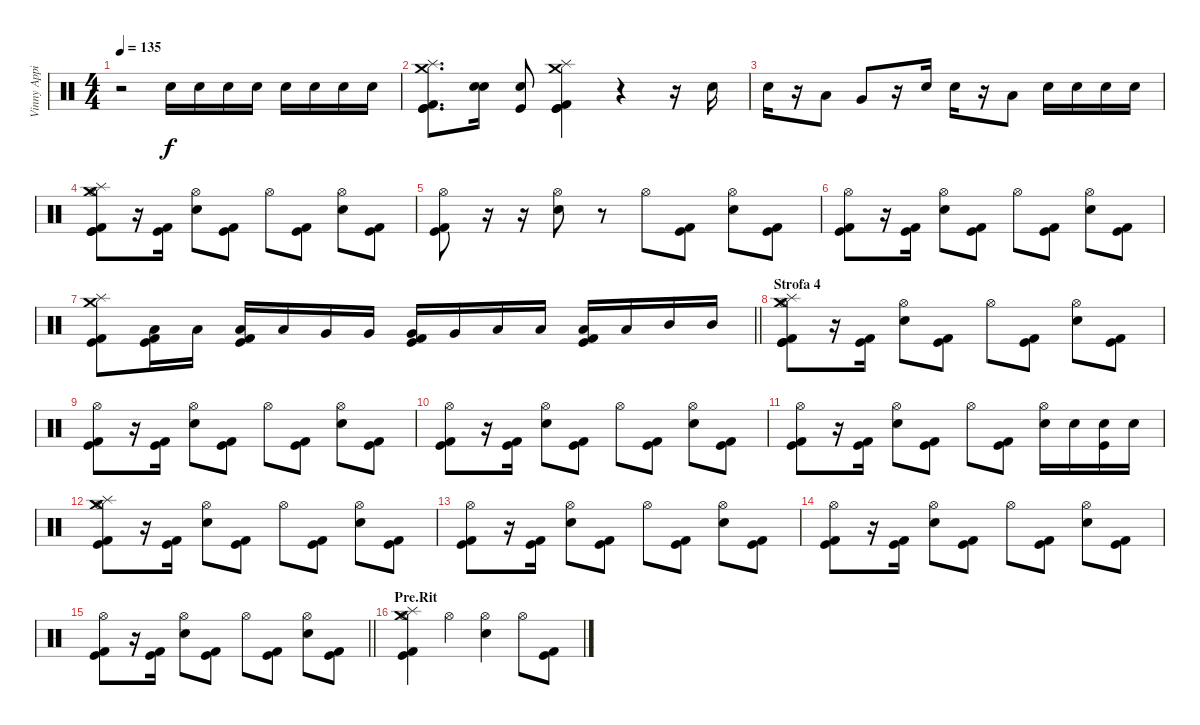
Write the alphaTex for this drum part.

\track ("Vinny Appice" "Vinny Appi") {instrument percussion}
\staff {score}
\articulation defaults
\ts (4 4)
\tempo 135
\clef neutral
\ks c
r.2{dy f} "Snare (hit) 2".16 "Snare (hit) 2".16 "Snare (hit) 2".16 "Snare (hit) 2".16 "Snare (hit) 2".16 "Snare (hit) 2".16 "Snare (hit) 2".16 "Snare (hit) 2".16 |
("Crash medium (hit)" "Splash (hit)" "Kick (hit)" "Kick (hit) 2" "Kick (hit)").8{d} ("Snare (hit) 2" "Electric Snare (hit)").16 ("Kick (hit)" "Electric Snare (hit)").8 ("Crash medium (hit)" "Splash (hit)" "Kick (hit)" "Kick (hit) 2" "Kick (hit)").4 r.4 r.16 "Snare (hit) 2".16 |
"Snare (hit) 2".16 r.16 "Low Tom (hit)".8 "Very Low Tom (hit)".8 r.16 "Snare (hit) 2".16 "Snare (hit) 2".16 r.16 "Low Tom (hit)".8 "Snare (hit) 2".16 "Snare (hit) 2".16 "Snare (hit) 2".16 "Snare (hit) 2".16 |
("Hi-Hat (open)" "Kick (hit)" "Kick (hit) 2" "Splash (hit)" "Crash medium (hit)" "Kick (hit)").8 r.16 ("Kick (hit)" "Kick (hit) 2").16 ("Hi-Hat (open)" "Snare (hit) 2").8 ("Kick (hit)" "Kick (hit) 2").8 "Hi-Hat (open)".8 ("Kick (hit)" "Kick (hit) 2").8 ("Hi-Hat (open)" "Snare (hit) 2").8 ("Kick (hit) 2" "Kick (hit)").8 |
("Hi-Hat (open)" "Kick (hit)" "Kick (hit) 2").8 r.16 r.16 ("Hi-Hat (open)" "Snare (hit) 2").8 r.8 "Hi-Hat (open)".8 ("Kick (hit)" "Kick (hit) 2").8 ("Hi-Hat (open)" "Snare (hit) 2").8 ("Kick (hit) 2" "Kick (hit)").8 |
("Hi-Hat (open)" "Kick (hit)" "Kick (hit) 2").8 r.16 ("Kick (hit)" "Kick (hit) 2").16 ("Hi-Hat (open)" "Snare (hit) 2").8 ("Kick (hit)" "Kick (hit) 2").8 "Hi-Hat (open)".8 ("Kick (hit)" "Kick (hit) 2").8 ("Hi-Hat (open)" "Snare (hit) 2").8 ("Kick (hit) 2" "Kick (hit)").8 |
\barLineRight lightlight
("Splash (hit)" "Crash medium (hit)" "Kick (hit)" "Kick (hit) 2").8 ("Kick (hit) 2" "Kick (hit)" "Low Floor Tom (hit)").16 "Low Floor Tom (hit)".16 ("Kick (hit) 2" "Kick (hit)" "Low Floor Tom (hit)").16 "Low Floor Tom (hit)".16 "Very Low Tom (hit)".16 "Very Low Tom (hit)".16 ("Kick (hit)" "Kick (hit) 2" "Very Low Tom (hit)").16 "Very Low Tom (hit)".16 "Low Tom (hit)".16 "Low Tom (hit)".16 ("Kick (hit) 2" "Kick (hit)" "Low Tom (hit)").16 "Low Tom (hit)".16 "Mid Tom (hit)".16 "Mid Tom (hit)".16 |
\section ("" "Strofa 4")
("Hi-Hat (open)" "Kick (hit)" "Kick (hit) 2" "Splash (hit)" "Crash medium (hit)" "Kick (hit)").8 r.16 ("Kick (hit)" "Kick (hit) 2").16 ("Hi-Hat (open)" "Snare (hit) 2").8 ("Kick (hit)" "Kick (hit) 2").8 "Hi-Hat (open)".8 ("Kick (hit)" "Kick (hit) 2").8 ("Hi-Hat (open)" "Snare (hit) 2").8 ("Kick (hit) 2" "Kick (hit)").8 |
("Hi-Hat (open)" "Kick (hit)" "Kick (hit) 2").8 r.16 ("Kick (hit)" "Kick (hit) 2").16 ("Hi-Hat (open)" "Snare (hit) 2").8 ("Kick (hit)" "Kick (hit) 2").8 "Hi-Hat (open)".8 ("Kick (hit)" "Kick (hit) 2").8 ("Hi-Hat (open)" "Snare (hit) 2").8 ("Kick (hit) 2" "Kick (hit)").8 |
("Hi-Hat (open)" "Kick (hit)" "Kick (hit) 2").8 r.16 ("Kick (hit)" "Kick (hit) 2").16 ("Hi-Hat (open)" "Snare (hit) 2").8 ("Kick (hit)" "Kick (hit) 2").8 "Hi-Hat (open)".8 ("Kick (hit)" "Kick (hit) 2").8 ("Hi-Hat (open)" "Snare (hit) 2").8 ("Kick (hit) 2" "Kick (hit)").8 |
("Hi-Hat (open)" "Kick (hit)" "Kick (hit) 2").8 r.16 ("Kick (hit)" "Kick (hit) 2").16 ("Hi-Hat (open)" "Snare (hit) 2").8 ("Kick (hit)" "Kick (hit) 2").8 "Hi-Hat (open)".8 ("Kick (hit)" "Kick (hit) 2").8 ("Hi-Hat (open)" "Snare (hit) 2").16 "Snare (hit) 2".16 ("Kick (hit)" "Snare (hit) 2").16 "Snare (hit) 2".16 |
("Hi-Hat (open)" "Kick (hit)" "Kick (hit) 2" "Splash (hit)" "Crash medium (hit)").8 r.16 ("Kick (hit)" "Kick (hit) 2").16 ("Hi-Hat (open)" "Snare (hit) 2").8 ("Kick (hit)" "Kick (hit) 2").8 "Hi-Hat (open)".8 ("Kick (hit)" "Kick (hit) 2").8 ("Hi-Hat (open)" "Snare (hit) 2").8 ("Kick (hit) 2" "Kick (hit)").8 |
("Hi-Hat (open)" "Kick (hit)" "Kick (hit) 2").8 r.16 ("Kick (hit)" "Kick (hit) 2").16 ("Hi-Hat (open)" "Snare (hit) 2").8 ("Kick (hit)" "Kick (hit) 2").8 "Hi-Hat (open)".8 ("Kick (hit)" "Kick (hit) 2").8 ("Hi-Hat (open)" "Snare (hit) 2").8 ("Kick (hit) 2" "Kick (hit)").8 |
("Hi-Hat (open)" "Kick (hit)" "Kick (hit) 2").8 r.16 ("Kick (hit)" "Kick (hit) 2").16 ("Hi-Hat (open)" "Snare (hit) 2").8 ("Kick (hit)" "Kick (hit) 2").8 "Hi-Hat (open)".8 ("Kick (hit)" "Kick (hit) 2").8 ("Hi-Hat (open)" "Snare (hit) 2").8 ("Kick (hit) 2" "Kick (hit)").8 |
\barLineRight lightlight
("Hi-Hat (open)" "Kick (hit)" "Kick (hit) 2").8 r.16 ("Kick (hit)" "Kick (hit) 2").16 ("Hi-Hat (open)" "Snare (hit) 2").8 ("Kick (hit)" "Kick (hit) 2").8 "Hi-Hat (open)".8 ("Kick (hit)" "Kick (hit) 2").8 ("Hi-Hat (open)" "Snare (hit) 2").8 ("Kick (hit) 2" "Kick (hit)").8 |
\section ("" "Pre.Rit")
("Hi-Hat (open)" "Splash (hit)" "Crash medium (hit)" "Kick (hit)" "Kick (hit) 2").4 "Hi-Hat (open)".4 ("Hi-Hat (open)" "Snare (hit) 2").4 "Hi-Hat (open)".8 ("Kick (hit)" "Kick (hit) 2").8
